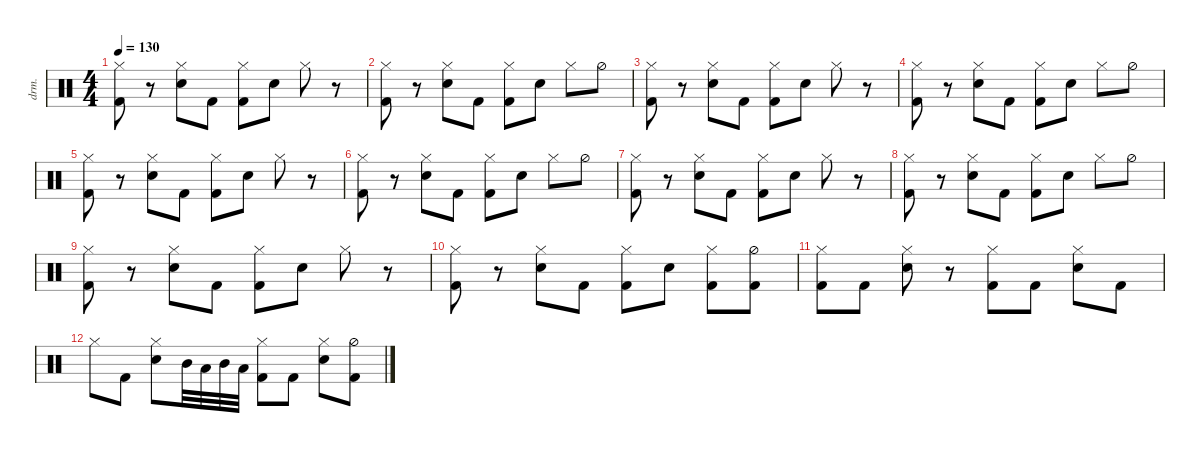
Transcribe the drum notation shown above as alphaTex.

\defaultSystemsLayout 4
\hideDynamics
\bracketExtendMode nobrackets
\otherSystemsTrackNameOrientation horizontal
\track ("Drumkit" "drm.") {instrument percussion}
\staff {score}
\articulation defaults
\ts (4 4)
\tempo 130
\clef neutral
\ks c
("Hi-Hat (closed)" "Kick (hit) 2").8{dy mf beam Down} r.8{beam Down} ("Hi-Hat (closed)" "Snare (hit) 2").8{beam Down} "Kick (hit) 2".8{beam Down} ("Hi-Hat (closed)" "Kick (hit) 2").8{beam Down} "Snare (hit) 2".8{beam Down} "Hi-Hat (closed)".8{beam Down} r.8{beam Down} |
("Hi-Hat (closed)" "Kick (hit) 2").8{beam Down} r.8{beam Down} ("Hi-Hat (closed)" "Snare (hit) 2").8{beam Down} "Kick (hit) 2".8{beam Down} ("Hi-Hat (closed)" "Kick (hit) 2").8{beam Down} "Snare (hit) 2".8{beam Down} "Hi-Hat (closed)".8{beam Down} "Hi-Hat (half)".8{beam Down} |
("Hi-Hat (closed)" "Kick (hit) 2").8{beam Down} r.8{beam Down} ("Hi-Hat (closed)" "Snare (hit) 2").8{beam Down} "Kick (hit) 2".8{beam Down} ("Hi-Hat (closed)" "Kick (hit) 2").8{beam Down} "Snare (hit) 2".8{beam Down} "Hi-Hat (closed)".8{beam Down} r.8{beam Down} |
("Hi-Hat (closed)" "Kick (hit) 2").8{beam Down} r.8{beam Down} ("Hi-Hat (closed)" "Snare (hit) 2").8{beam Down} "Kick (hit) 2".8{beam Down} ("Hi-Hat (closed)" "Kick (hit) 2").8{beam Down} "Snare (hit) 2".8{beam Down} "Hi-Hat (closed)".8{beam Down} "Hi-Hat (half)".8{beam Down} |
("Hi-Hat (closed)" "Kick (hit) 2").8{beam Down} r.8{beam Down} ("Hi-Hat (closed)" "Snare (hit) 2").8{beam Down} "Kick (hit) 2".8{beam Down} ("Hi-Hat (closed)" "Kick (hit) 2").8{beam Down} "Snare (hit) 2".8{beam Down} "Hi-Hat (closed)".8{beam Down} r.8{beam Down} |
("Hi-Hat (closed)" "Kick (hit) 2").8{beam Down} r.8{beam Down} ("Hi-Hat (closed)" "Snare (hit) 2").8{beam Down} "Kick (hit) 2".8{beam Down} ("Hi-Hat (closed)" "Kick (hit) 2").8{beam Down} "Snare (hit) 2".8{beam Down} "Hi-Hat (closed)".8{beam Down} "Hi-Hat (half)".8{beam Down} |
("Hi-Hat (closed)" "Kick (hit) 2").8{beam Down} r.8{beam Down} ("Hi-Hat (closed)" "Snare (hit) 2").8{beam Down} "Kick (hit) 2".8{beam Down} ("Hi-Hat (closed)" "Kick (hit) 2").8{beam Down} "Snare (hit) 2".8{beam Down} "Hi-Hat (closed)".8{beam Down} r.8{beam Down} |
("Hi-Hat (closed)" "Kick (hit) 2").8{beam Down} r.8{beam Down} ("Hi-Hat (closed)" "Snare (hit) 2").8{beam Down} "Kick (hit) 2".8{beam Down} ("Hi-Hat (closed)" "Kick (hit) 2").8{beam Down} "Snare (hit) 2".8{beam Down} "Hi-Hat (closed)".8{beam Down} "Hi-Hat (half)".8{beam Down} |
("Hi-Hat (closed)" "Kick (hit) 2").8{beam Down} r.8{beam Down} ("Hi-Hat (closed)" "Snare (hit) 2").8{beam Down} "Kick (hit) 2".8{beam Down} ("Hi-Hat (closed)" "Kick (hit) 2").8{beam Down} "Snare (hit) 2".8{beam Down} "Hi-Hat (closed)".8{beam Down} r.8{beam Down} |
("Hi-Hat (closed)" "Kick (hit) 2").8{beam Down} r.8{beam Down} ("Hi-Hat (closed)" "Snare (hit) 2").8{beam Down} "Kick (hit) 2".8{beam Down} ("Hi-Hat (closed)" "Kick (hit) 2").8{beam Down} "Snare (hit) 2".8{beam Down} ("Hi-Hat (closed)" "Kick (hit) 2").8{beam Down} ("Hi-Hat (half)" "Kick (hit) 2").8{beam Down} |
("Hi-Hat (closed)" "Kick (hit) 2").8{beam Down} "Kick (hit) 2".8{beam Down} ("Hi-Hat (closed)" "Snare (hit) 2").8{beam Down} r.8{beam Down} ("Hi-Hat (closed)" "Kick (hit) 2").8{beam Down} "Kick (hit) 2".8{beam Down} ("Hi-Hat (closed)" "Snare (hit) 2").8{beam Down} "Kick (hit) 2".8{beam Down} |
"Hi-Hat (closed)".8{beam Down} "Kick (hit) 2".8{beam Down} ("Hi-Hat (closed)" "Snare (hit) 2").8{beam Down} "Mid Tom (hit)".32{beam Down} "Low Tom (hit)".32{beam Down} "Mid Tom (hit)".32{beam Down} "Low Tom (hit)".32{beam Down} ("Hi-Hat (closed)" "Kick (hit) 2").8{beam Down} "Kick (hit) 2".8{beam Down} ("Hi-Hat (closed)" "Snare (hit) 2").8{beam Down} ("Hi-Hat (half)" "Kick (hit) 2").8{beam Down}
